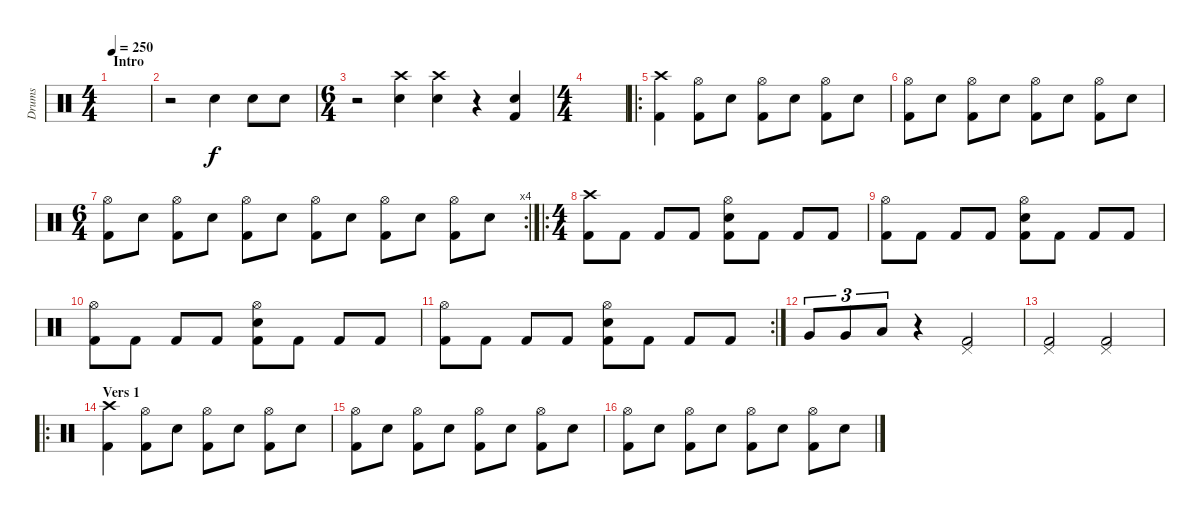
\track ("Drums" "Drums") {instrument percussion}
\staff {score}
\articulation defaults
\ts (4 4)
\section ("" "Intro")
\tempo 250
\clef neutral
\ks c
|
r.2 "Snare (hit) 2".4 "Snare (hit) 2".8 "Snare (hit) 2".8 |
\ts (6 4)
r.2 ("Crash high (hit)" "Snare (hit) 2").4 ("Crash high (hit)" "Snare (hit) 2").4 r.4 ("Snare (hit) 2" "Kick (hit) 2").4 |
\ts (4 4)
|
\ro
("Crash high (hit)" "Kick (hit) 2").4 ("Hi-Hat (open)" "Kick (hit) 2").8 "Snare (hit) 2".8 ("Hi-Hat (open)" "Kick (hit) 2").8 "Snare (hit) 2".8 ("Hi-Hat (open)" "Kick (hit) 2").8 "Snare (hit) 2".8 |
("Hi-Hat (open)" "Kick (hit) 2").8 "Snare (hit) 2".8 ("Hi-Hat (open)" "Kick (hit) 2").8 "Snare (hit) 2".8 ("Hi-Hat (open)" "Kick (hit) 2").8 "Snare (hit) 2".8 ("Hi-Hat (open)" "Kick (hit) 2").8 "Snare (hit) 2".8 |
\rc 4
\ts (6 4)
("Hi-Hat (open)" "Kick (hit) 2").8 "Snare (hit) 2".8 ("Hi-Hat (open)" "Kick (hit) 2").8 "Snare (hit) 2".8 ("Hi-Hat (open)" "Kick (hit) 2").8 "Snare (hit) 2".8 ("Hi-Hat (open)" "Kick (hit) 2").8 "Snare (hit) 2".8 ("Hi-Hat (open)" "Kick (hit) 2").8 "Snare (hit) 2".8 ("Hi-Hat (open)" "Kick (hit) 2").8 "Snare (hit) 2".8 |
\ro
\ts (4 4)
("Crash high (hit)" "Kick (hit) 2").8 "Kick (hit) 2".8 "Kick (hit) 2".8 "Kick (hit) 2".8 ("Snare (hit) 2" "Kick (hit) 2" "Hi-Hat (open)").8 "Kick (hit) 2".8 "Kick (hit) 2".8 "Kick (hit) 2".8 |
("Kick (hit) 2" "Hi-Hat (open)").8 "Kick (hit) 2".8 "Kick (hit) 2".8 "Kick (hit) 2".8 ("Snare (hit) 2" "Kick (hit) 2" "Hi-Hat (open)").8 "Kick (hit) 2".8 "Kick (hit) 2".8 "Kick (hit) 2".8 |
("Kick (hit) 2" "Hi-Hat (open)").8 "Kick (hit) 2".8 "Kick (hit) 2".8 "Kick (hit) 2".8 ("Snare (hit) 2" "Kick (hit) 2" "Hi-Hat (open)").8 "Kick (hit) 2".8 "Kick (hit) 2".8 "Kick (hit) 2".8 |
\rc 2
("Kick (hit) 2" "Hi-Hat (open)").8 "Kick (hit) 2".8 "Kick (hit) 2".8 "Kick (hit) 2".8 ("Snare (hit) 2" "Kick (hit) 2" "Hi-Hat (open)").8 "Kick (hit) 2".8 "Kick (hit) 2".8 "Kick (hit) 2".8 |
"Very Low Tom (hit)".8{tu (3 2)} "Very Low Tom (hit)".8{tu (3 2)} "Low Floor Tom (hit)".8{tu (3 2)} r.4 ("Pedal Hi-Hat (hit)" "Kick (hit) 2").2 |
("Pedal Hi-Hat (hit)" "Kick (hit) 2").2 ("Pedal Hi-Hat (hit)" "Kick (hit) 2").2 |
\ro
\section ("" "Vers 1")
("Crash high (hit)" "Kick (hit) 2").4 ("Hi-Hat (open)" "Kick (hit) 2").8 "Snare (hit) 2".8 ("Hi-Hat (open)" "Kick (hit) 2").8 "Snare (hit) 2".8 ("Hi-Hat (open)" "Kick (hit) 2").8 "Snare (hit) 2".8 |
("Hi-Hat (open)" "Kick (hit) 2").8 "Snare (hit) 2".8 ("Hi-Hat (open)" "Kick (hit) 2").8 "Snare (hit) 2".8 ("Hi-Hat (open)" "Kick (hit) 2").8 "Snare (hit) 2".8 ("Hi-Hat (open)" "Kick (hit) 2").8 "Snare (hit) 2".8 |
("Hi-Hat (open)" "Kick (hit) 2").8 "Snare (hit) 2".8 ("Hi-Hat (open)" "Kick (hit) 2").8 "Snare (hit) 2".8 ("Hi-Hat (open)" "Kick (hit) 2").8 "Snare (hit) 2".8 ("Hi-Hat (open)" "Kick (hit) 2").8 "Snare (hit) 2".8
